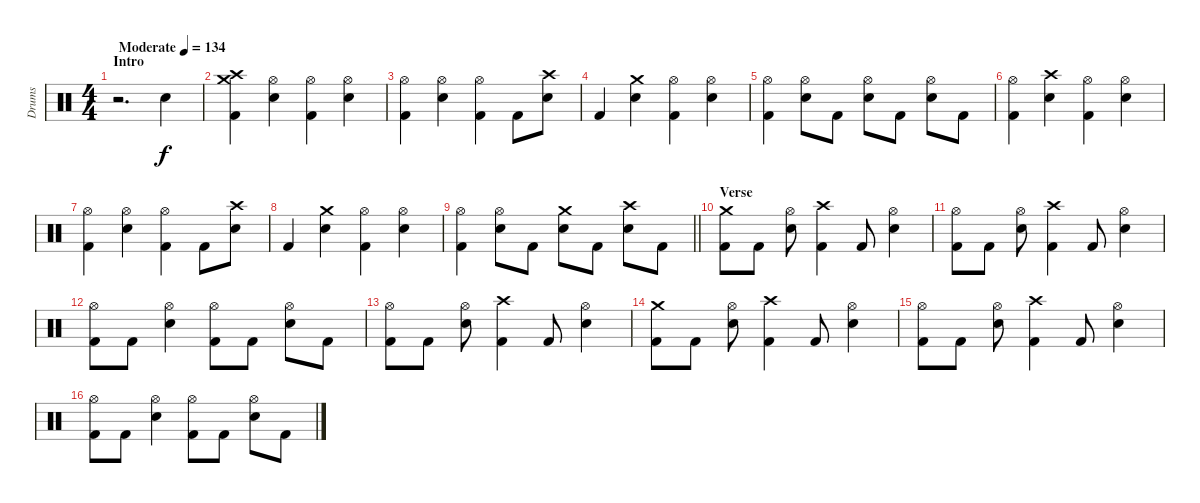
\track ("Drums" "Drums") {instrument percussion}
\staff {score}
\articulation defaults
\ts (4 4)
\section ("" "Intro")
\tempo (134 "Moderate")
\clef neutral
\ks c
r.2{d dy f} "Snare (hit) 2".4 |
("Crash medium (hit)" "Crash high (hit)" "Kick (hit) 2").4 ("Hi-Hat (open)" "Snare (hit) 2").4 ("Hi-Hat (open)" "Kick (hit) 2").4 ("Hi-Hat (open)" "Snare (hit) 2").4 |
("Hi-Hat (open)" "Kick (hit) 2").4 ("Hi-Hat (open)" "Snare (hit) 2").4 ("Hi-Hat (open)" "Kick (hit) 2").4 "Kick (hit) 2".8 ("Crash high (hit)" "Snare (hit) 2").8 |
"Kick (hit) 2".4 ("Crash medium (hit)" "Snare (hit) 2").4 ("Hi-Hat (open)" "Kick (hit) 2").4 ("Hi-Hat (open)" "Snare (hit) 2").4 |
("Hi-Hat (open)" "Kick (hit) 2").4 ("Hi-Hat (open)" "Snare (hit) 2").8 "Kick (hit) 2".8 ("Hi-Hat (open)" "Snare (hit) 2").8 "Kick (hit) 2".8 ("Hi-Hat (open)" "Snare (hit) 2").8 "Kick (hit) 2".8 |
("Hi-Hat (open)" "Kick (hit) 2").4 ("Crash high (hit)" "Snare (hit) 2").4 ("Hi-Hat (open)" "Kick (hit) 2").4 ("Hi-Hat (open)" "Snare (hit) 2").4 |
("Hi-Hat (open)" "Kick (hit) 2").4 ("Hi-Hat (open)" "Snare (hit) 2").4 ("Hi-Hat (open)" "Kick (hit) 2").4 "Kick (hit) 2".8 ("Crash high (hit)" "Snare (hit) 2").8 |
"Kick (hit) 2".4 ("Crash medium (hit)" "Snare (hit) 2").4 ("Hi-Hat (open)" "Kick (hit) 2").4 ("Hi-Hat (open)" "Snare (hit) 2").4 |
\barLineRight lightlight
("Hi-Hat (open)" "Kick (hit) 2").4 ("Hi-Hat (open)" "Snare (hit) 2").8 "Kick (hit) 2".8 ("Crash medium (hit)" "Snare (hit) 2").8 "Kick (hit) 2".8 ("Crash high (hit)" "Snare (hit) 2").8 "Kick (hit) 2".8 |
\section ("" "Verse")
("Crash medium (hit)" "Kick (hit) 2").8 "Kick (hit) 2".8 ("Hi-Hat (open)" "Snare (hit) 2").8 ("Crash high (hit)" "Kick (hit) 2").4 "Kick (hit) 2".8 ("Hi-Hat (open)" "Snare (hit) 2").4 |
("Hi-Hat (open)" "Kick (hit) 2").8 "Kick (hit) 2".8 ("Hi-Hat (open)" "Snare (hit) 2").8 ("Crash high (hit)" "Kick (hit) 2").4 "Kick (hit) 2".8 ("Hi-Hat (open)" "Snare (hit) 2").4 |
("Hi-Hat (open)" "Kick (hit) 2").8 "Kick (hit) 2".8 ("Hi-Hat (open)" "Snare (hit) 2").4 ("Hi-Hat (open)" "Kick (hit) 2").8 "Kick (hit) 2".8 ("Hi-Hat (open)" "Snare (hit) 2").8 "Kick (hit) 2".8 |
("Hi-Hat (open)" "Kick (hit) 2").8 "Kick (hit) 2".8 ("Hi-Hat (open)" "Snare (hit) 2").8 ("Crash high (hit)" "Kick (hit) 2").4 "Kick (hit) 2".8 ("Hi-Hat (open)" "Snare (hit) 2").4 |
("Crash medium (hit)" "Kick (hit) 2").8 "Kick (hit) 2".8 ("Hi-Hat (open)" "Snare (hit) 2").8 ("Crash high (hit)" "Kick (hit) 2").4 "Kick (hit) 2".8 ("Hi-Hat (open)" "Snare (hit) 2").4 |
("Hi-Hat (open)" "Kick (hit) 2").8 "Kick (hit) 2".8 ("Hi-Hat (open)" "Snare (hit) 2").8 ("Crash high (hit)" "Kick (hit) 2").4 "Kick (hit) 2".8 ("Hi-Hat (open)" "Snare (hit) 2").4 |
("Hi-Hat (open)" "Kick (hit) 2").8 "Kick (hit) 2".8 ("Hi-Hat (open)" "Snare (hit) 2").4 ("Hi-Hat (open)" "Kick (hit) 2").8 "Kick (hit) 2".8 ("Hi-Hat (open)" "Snare (hit) 2").8 "Kick (hit) 2".8
